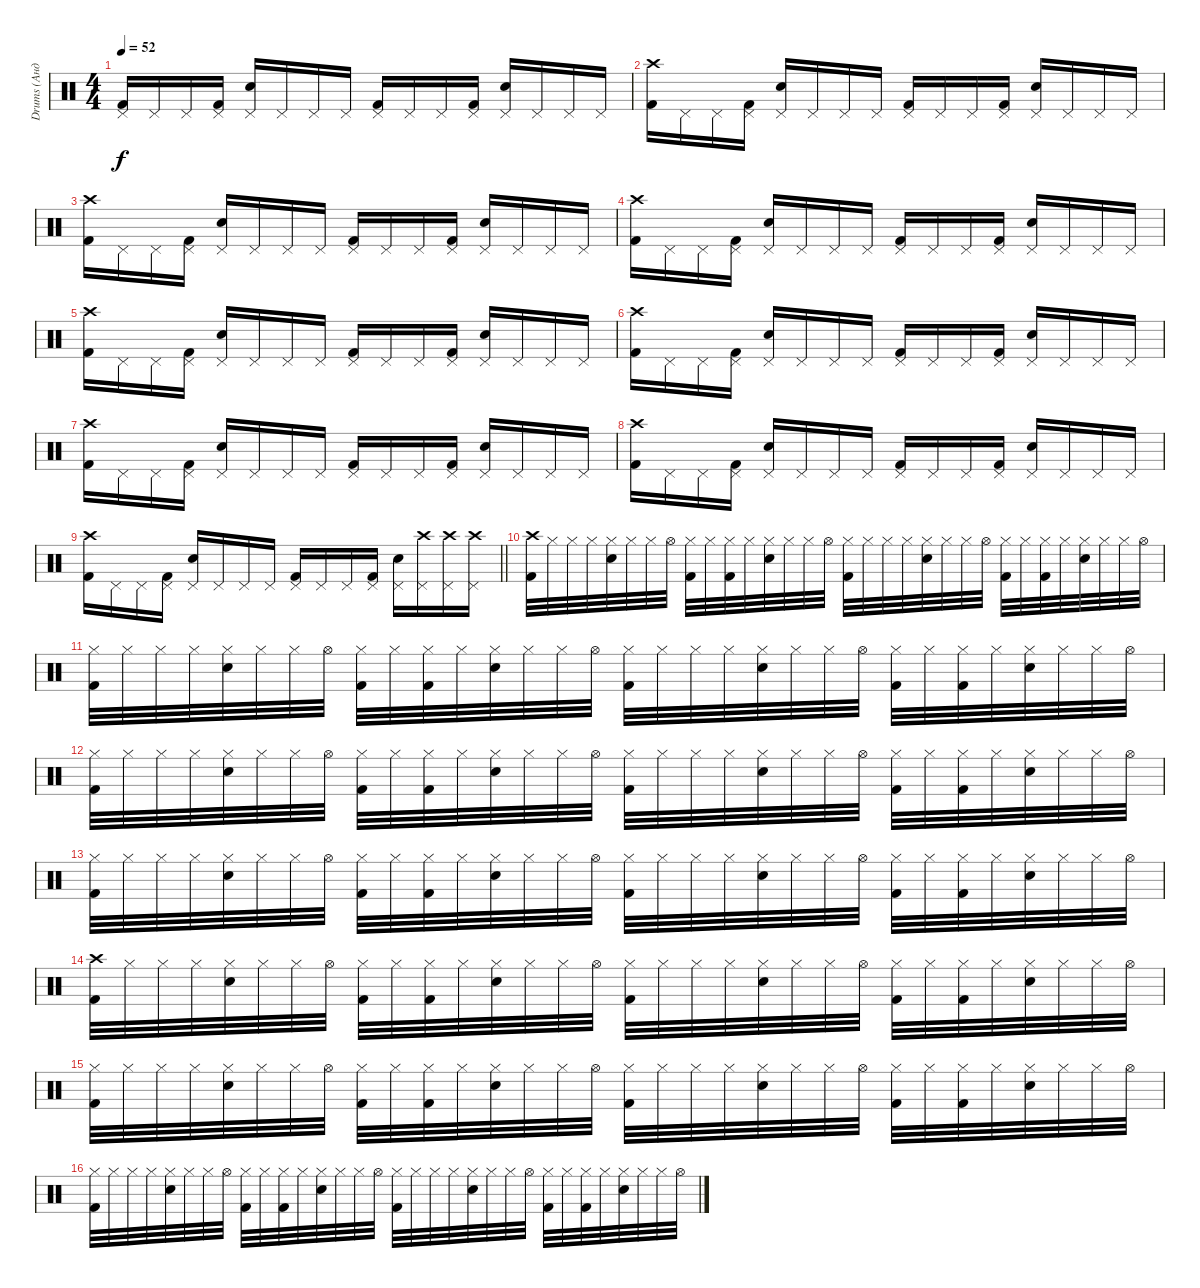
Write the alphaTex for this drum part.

\track ("Drums (Андрей)" "Drums (Анд") {instrument percussion}
\staff {score}
\articulation defaults
\ts (4 4)
\tempo 52
\clef neutral
\ks c
("Pedal Hi-Hat (hit)" "Kick (hit) 2").16{dy f} "Pedal Hi-Hat (hit)".16 "Pedal Hi-Hat (hit)".16 ("Pedal Hi-Hat (hit)" "Kick (hit) 2").16 ("Pedal Hi-Hat (hit)" "Snare (hit) 2").16 "Pedal Hi-Hat (hit)".16 "Pedal Hi-Hat (hit)".16 "Pedal Hi-Hat (hit)".16 ("Pedal Hi-Hat (hit)" "Kick (hit) 2").16 "Pedal Hi-Hat (hit)".16 "Pedal Hi-Hat (hit)".16 ("Pedal Hi-Hat (hit)" "Kick (hit) 2").16 ("Pedal Hi-Hat (hit)" "Snare (hit) 2").16 "Pedal Hi-Hat (hit)".16 "Pedal Hi-Hat (hit)".16 "Pedal Hi-Hat (hit)".16 |
("Crash high (hit)" "Kick (hit) 2").16 "Pedal Hi-Hat (hit)".16 "Pedal Hi-Hat (hit)".16 ("Pedal Hi-Hat (hit)" "Kick (hit) 2").16 ("Pedal Hi-Hat (hit)" "Snare (hit) 2").16 "Pedal Hi-Hat (hit)".16 "Pedal Hi-Hat (hit)".16 "Pedal Hi-Hat (hit)".16 ("Pedal Hi-Hat (hit)" "Kick (hit) 2").16 "Pedal Hi-Hat (hit)".16 "Pedal Hi-Hat (hit)".16 ("Pedal Hi-Hat (hit)" "Kick (hit) 2").16 ("Pedal Hi-Hat (hit)" "Snare (hit) 2").16 "Pedal Hi-Hat (hit)".16 "Pedal Hi-Hat (hit)".16 "Pedal Hi-Hat (hit)".16 |
("Crash high (hit)" "Kick (hit) 2").16 "Pedal Hi-Hat (hit)".16 "Pedal Hi-Hat (hit)".16 ("Pedal Hi-Hat (hit)" "Kick (hit) 2").16 ("Pedal Hi-Hat (hit)" "Snare (hit) 2").16 "Pedal Hi-Hat (hit)".16 "Pedal Hi-Hat (hit)".16 "Pedal Hi-Hat (hit)".16 ("Pedal Hi-Hat (hit)" "Kick (hit) 2").16 "Pedal Hi-Hat (hit)".16 "Pedal Hi-Hat (hit)".16 ("Pedal Hi-Hat (hit)" "Kick (hit) 2").16 ("Pedal Hi-Hat (hit)" "Snare (hit) 2").16 "Pedal Hi-Hat (hit)".16 "Pedal Hi-Hat (hit)".16 "Pedal Hi-Hat (hit)".16 |
("Crash high (hit)" "Kick (hit) 2").16 "Pedal Hi-Hat (hit)".16 "Pedal Hi-Hat (hit)".16 ("Pedal Hi-Hat (hit)" "Kick (hit) 2").16 ("Pedal Hi-Hat (hit)" "Snare (hit) 2").16 "Pedal Hi-Hat (hit)".16 "Pedal Hi-Hat (hit)".16 "Pedal Hi-Hat (hit)".16 ("Pedal Hi-Hat (hit)" "Kick (hit) 2").16 "Pedal Hi-Hat (hit)".16 "Pedal Hi-Hat (hit)".16 ("Pedal Hi-Hat (hit)" "Kick (hit) 2").16 ("Pedal Hi-Hat (hit)" "Snare (hit) 2").16 "Pedal Hi-Hat (hit)".16 "Pedal Hi-Hat (hit)".16 "Pedal Hi-Hat (hit)".16 |
("Crash high (hit)" "Kick (hit) 2").16 "Pedal Hi-Hat (hit)".16 "Pedal Hi-Hat (hit)".16 ("Pedal Hi-Hat (hit)" "Kick (hit) 2").16 ("Pedal Hi-Hat (hit)" "Snare (hit) 2").16 "Pedal Hi-Hat (hit)".16 "Pedal Hi-Hat (hit)".16 "Pedal Hi-Hat (hit)".16 ("Pedal Hi-Hat (hit)" "Kick (hit) 2").16 "Pedal Hi-Hat (hit)".16 "Pedal Hi-Hat (hit)".16 ("Pedal Hi-Hat (hit)" "Kick (hit) 2").16 ("Pedal Hi-Hat (hit)" "Snare (hit) 2").16 "Pedal Hi-Hat (hit)".16 "Pedal Hi-Hat (hit)".16 "Pedal Hi-Hat (hit)".16 |
("Crash high (hit)" "Kick (hit) 2").16 "Pedal Hi-Hat (hit)".16 "Pedal Hi-Hat (hit)".16 ("Pedal Hi-Hat (hit)" "Kick (hit) 2").16 ("Pedal Hi-Hat (hit)" "Snare (hit) 2").16 "Pedal Hi-Hat (hit)".16 "Pedal Hi-Hat (hit)".16 "Pedal Hi-Hat (hit)".16 ("Pedal Hi-Hat (hit)" "Kick (hit) 2").16 "Pedal Hi-Hat (hit)".16 "Pedal Hi-Hat (hit)".16 ("Pedal Hi-Hat (hit)" "Kick (hit) 2").16 ("Pedal Hi-Hat (hit)" "Snare (hit) 2").16 "Pedal Hi-Hat (hit)".16 "Pedal Hi-Hat (hit)".16 "Pedal Hi-Hat (hit)".16 |
("Crash high (hit)" "Kick (hit) 2").16 "Pedal Hi-Hat (hit)".16 "Pedal Hi-Hat (hit)".16 ("Pedal Hi-Hat (hit)" "Kick (hit) 2").16 ("Pedal Hi-Hat (hit)" "Snare (hit) 2").16 "Pedal Hi-Hat (hit)".16 "Pedal Hi-Hat (hit)".16 "Pedal Hi-Hat (hit)".16 ("Pedal Hi-Hat (hit)" "Kick (hit) 2").16 "Pedal Hi-Hat (hit)".16 "Pedal Hi-Hat (hit)".16 ("Pedal Hi-Hat (hit)" "Kick (hit) 2").16 ("Pedal Hi-Hat (hit)" "Snare (hit) 2").16 "Pedal Hi-Hat (hit)".16 "Pedal Hi-Hat (hit)".16 "Pedal Hi-Hat (hit)".16 |
("Crash high (hit)" "Kick (hit) 2").16 "Pedal Hi-Hat (hit)".16 "Pedal Hi-Hat (hit)".16 ("Pedal Hi-Hat (hit)" "Kick (hit) 2").16 ("Pedal Hi-Hat (hit)" "Snare (hit) 2").16 "Pedal Hi-Hat (hit)".16 "Pedal Hi-Hat (hit)".16 "Pedal Hi-Hat (hit)".16 ("Pedal Hi-Hat (hit)" "Kick (hit) 2").16 "Pedal Hi-Hat (hit)".16 "Pedal Hi-Hat (hit)".16 ("Pedal Hi-Hat (hit)" "Kick (hit) 2").16 ("Pedal Hi-Hat (hit)" "Snare (hit) 2").16 "Pedal Hi-Hat (hit)".16 "Pedal Hi-Hat (hit)".16 "Pedal Hi-Hat (hit)".16 |
\barLineRight lightlight
("Crash high (hit)" "Kick (hit) 2").16 "Pedal Hi-Hat (hit)".16 "Pedal Hi-Hat (hit)".16 ("Pedal Hi-Hat (hit)" "Kick (hit) 2").16 ("Pedal Hi-Hat (hit)" "Snare (hit) 2").16 "Pedal Hi-Hat (hit)".16 "Pedal Hi-Hat (hit)".16 "Pedal Hi-Hat (hit)".16 ("Pedal Hi-Hat (hit)" "Kick (hit) 2").16 "Pedal Hi-Hat (hit)".16 "Pedal Hi-Hat (hit)".16 ("Pedal Hi-Hat (hit)" "Kick (hit) 2").16 ("Pedal Hi-Hat (hit)" "Snare (hit) 2").16 ("Pedal Hi-Hat (hit)" "Crash high (hit)").16 ("Pedal Hi-Hat (hit)" "Crash high (hit)").16 ("Pedal Hi-Hat (hit)" "Crash high (hit)").16 |
("Crash high (hit)" "Kick (hit) 2").32 "Hi-Hat (closed)".32 "Hi-Hat (closed)".32 "Hi-Hat (closed)".32 ("Hi-Hat (closed)" "Snare (hit) 2").32 "Hi-Hat (closed)".32 "Hi-Hat (closed)".32 "Hi-Hat (open)".32 ("Hi-Hat (closed)" "Kick (hit) 2").32 "Hi-Hat (closed)".32 ("Hi-Hat (closed)" "Kick (hit) 2").32 "Hi-Hat (closed)".32 ("Hi-Hat (closed)" "Snare (hit) 2").32 "Hi-Hat (closed)".32 "Hi-Hat (closed)".32 "Hi-Hat (open)".32 ("Hi-Hat (closed)" "Kick (hit) 2").32 "Hi-Hat (closed)".32 "Hi-Hat (closed)".32 "Hi-Hat (closed)".32 ("Hi-Hat (closed)" "Snare (hit) 2").32 "Hi-Hat (closed)".32 "Hi-Hat (closed)".32 "Hi-Hat (open)".32 ("Hi-Hat (closed)" "Kick (hit) 2").32 "Hi-Hat (closed)".32 ("Hi-Hat (closed)" "Kick (hit) 2").32 "Hi-Hat (closed)".32 ("Hi-Hat (closed)" "Snare (hit) 2").32 "Hi-Hat (closed)".32 "Hi-Hat (closed)".32 "Hi-Hat (open)".32 |
("Hi-Hat (closed)" "Kick (hit) 2").32 "Hi-Hat (closed)".32 "Hi-Hat (closed)".32 "Hi-Hat (closed)".32 ("Hi-Hat (closed)" "Snare (hit) 2").32 "Hi-Hat (closed)".32 "Hi-Hat (closed)".32 "Hi-Hat (open)".32 ("Hi-Hat (closed)" "Kick (hit) 2").32 "Hi-Hat (closed)".32 ("Hi-Hat (closed)" "Kick (hit) 2").32 "Hi-Hat (closed)".32 ("Hi-Hat (closed)" "Snare (hit) 2").32 "Hi-Hat (closed)".32 "Hi-Hat (closed)".32 "Hi-Hat (open)".32 ("Hi-Hat (closed)" "Kick (hit) 2").32 "Hi-Hat (closed)".32 "Hi-Hat (closed)".32 "Hi-Hat (closed)".32 ("Hi-Hat (closed)" "Snare (hit) 2").32 "Hi-Hat (closed)".32 "Hi-Hat (closed)".32 "Hi-Hat (open)".32 ("Hi-Hat (closed)" "Kick (hit) 2").32 "Hi-Hat (closed)".32 ("Hi-Hat (closed)" "Kick (hit) 2").32 "Hi-Hat (closed)".32 ("Hi-Hat (closed)" "Snare (hit) 2").32 "Hi-Hat (closed)".32 "Hi-Hat (closed)".32 "Hi-Hat (open)".32 |
("Hi-Hat (closed)" "Kick (hit) 2").32 "Hi-Hat (closed)".32 "Hi-Hat (closed)".32 "Hi-Hat (closed)".32 ("Hi-Hat (closed)" "Snare (hit) 2").32 "Hi-Hat (closed)".32 "Hi-Hat (closed)".32 "Hi-Hat (open)".32 ("Hi-Hat (closed)" "Kick (hit) 2").32 "Hi-Hat (closed)".32 ("Hi-Hat (closed)" "Kick (hit) 2").32 "Hi-Hat (closed)".32 ("Hi-Hat (closed)" "Snare (hit) 2").32 "Hi-Hat (closed)".32 "Hi-Hat (closed)".32 "Hi-Hat (open)".32 ("Hi-Hat (closed)" "Kick (hit) 2").32 "Hi-Hat (closed)".32 "Hi-Hat (closed)".32 "Hi-Hat (closed)".32 ("Hi-Hat (closed)" "Snare (hit) 2").32 "Hi-Hat (closed)".32 "Hi-Hat (closed)".32 "Hi-Hat (open)".32 ("Hi-Hat (closed)" "Kick (hit) 2").32 "Hi-Hat (closed)".32 ("Hi-Hat (closed)" "Kick (hit) 2").32 "Hi-Hat (closed)".32 ("Hi-Hat (closed)" "Snare (hit) 2").32 "Hi-Hat (closed)".32 "Hi-Hat (closed)".32 "Hi-Hat (open)".32 |
("Hi-Hat (closed)" "Kick (hit) 2").32 "Hi-Hat (closed)".32 "Hi-Hat (closed)".32 "Hi-Hat (closed)".32 ("Hi-Hat (closed)" "Snare (hit) 2").32 "Hi-Hat (closed)".32 "Hi-Hat (closed)".32 "Hi-Hat (open)".32 ("Hi-Hat (closed)" "Kick (hit) 2").32 "Hi-Hat (closed)".32 ("Hi-Hat (closed)" "Kick (hit) 2").32 "Hi-Hat (closed)".32 ("Hi-Hat (closed)" "Snare (hit) 2").32 "Hi-Hat (closed)".32 "Hi-Hat (closed)".32 "Hi-Hat (open)".32 ("Hi-Hat (closed)" "Kick (hit) 2").32 "Hi-Hat (closed)".32 "Hi-Hat (closed)".32 "Hi-Hat (closed)".32 ("Hi-Hat (closed)" "Snare (hit) 2").32 "Hi-Hat (closed)".32 "Hi-Hat (closed)".32 "Hi-Hat (open)".32 ("Hi-Hat (closed)" "Kick (hit) 2").32 "Hi-Hat (closed)".32 ("Hi-Hat (closed)" "Kick (hit) 2").32 "Hi-Hat (closed)".32 ("Hi-Hat (closed)" "Snare (hit) 2").32 "Hi-Hat (closed)".32 "Hi-Hat (closed)".32 "Hi-Hat (open)".32 |
("Crash high (hit)" "Kick (hit) 2").32 "Hi-Hat (closed)".32 "Hi-Hat (closed)".32 "Hi-Hat (closed)".32 ("Hi-Hat (closed)" "Snare (hit) 2").32 "Hi-Hat (closed)".32 "Hi-Hat (closed)".32 "Hi-Hat (open)".32 ("Hi-Hat (closed)" "Kick (hit) 2").32 "Hi-Hat (closed)".32 ("Hi-Hat (closed)" "Kick (hit) 2").32 "Hi-Hat (closed)".32 ("Hi-Hat (closed)" "Snare (hit) 2").32 "Hi-Hat (closed)".32 "Hi-Hat (closed)".32 "Hi-Hat (open)".32 ("Hi-Hat (closed)" "Kick (hit) 2").32 "Hi-Hat (closed)".32 "Hi-Hat (closed)".32 "Hi-Hat (closed)".32 ("Hi-Hat (closed)" "Snare (hit) 2").32 "Hi-Hat (closed)".32 "Hi-Hat (closed)".32 "Hi-Hat (open)".32 ("Hi-Hat (closed)" "Kick (hit) 2").32 "Hi-Hat (closed)".32 ("Hi-Hat (closed)" "Kick (hit) 2").32 "Hi-Hat (closed)".32 ("Hi-Hat (closed)" "Snare (hit) 2").32 "Hi-Hat (closed)".32 "Hi-Hat (closed)".32 "Hi-Hat (open)".32 |
("Hi-Hat (closed)" "Kick (hit) 2").32 "Hi-Hat (closed)".32 "Hi-Hat (closed)".32 "Hi-Hat (closed)".32 ("Hi-Hat (closed)" "Snare (hit) 2").32 "Hi-Hat (closed)".32 "Hi-Hat (closed)".32 "Hi-Hat (open)".32 ("Hi-Hat (closed)" "Kick (hit) 2").32 "Hi-Hat (closed)".32 ("Hi-Hat (closed)" "Kick (hit) 2").32 "Hi-Hat (closed)".32 ("Hi-Hat (closed)" "Snare (hit) 2").32 "Hi-Hat (closed)".32 "Hi-Hat (closed)".32 "Hi-Hat (open)".32 ("Hi-Hat (closed)" "Kick (hit) 2").32 "Hi-Hat (closed)".32 "Hi-Hat (closed)".32 "Hi-Hat (closed)".32 ("Hi-Hat (closed)" "Snare (hit) 2").32 "Hi-Hat (closed)".32 "Hi-Hat (closed)".32 "Hi-Hat (open)".32 ("Hi-Hat (closed)" "Kick (hit) 2").32 "Hi-Hat (closed)".32 ("Hi-Hat (closed)" "Kick (hit) 2").32 "Hi-Hat (closed)".32 ("Hi-Hat (closed)" "Snare (hit) 2").32 "Hi-Hat (closed)".32 "Hi-Hat (closed)".32 "Hi-Hat (open)".32 |
("Hi-Hat (closed)" "Kick (hit) 2").32 "Hi-Hat (closed)".32 "Hi-Hat (closed)".32 "Hi-Hat (closed)".32 ("Hi-Hat (closed)" "Snare (hit) 2").32 "Hi-Hat (closed)".32 "Hi-Hat (closed)".32 "Hi-Hat (open)".32 ("Hi-Hat (closed)" "Kick (hit) 2").32 "Hi-Hat (closed)".32 ("Hi-Hat (closed)" "Kick (hit) 2").32 "Hi-Hat (closed)".32 ("Hi-Hat (closed)" "Snare (hit) 2").32 "Hi-Hat (closed)".32 "Hi-Hat (closed)".32 "Hi-Hat (open)".32 ("Hi-Hat (closed)" "Kick (hit) 2").32 "Hi-Hat (closed)".32 "Hi-Hat (closed)".32 "Hi-Hat (closed)".32 ("Hi-Hat (closed)" "Snare (hit) 2").32 "Hi-Hat (closed)".32 "Hi-Hat (closed)".32 "Hi-Hat (open)".32 ("Hi-Hat (closed)" "Kick (hit) 2").32 "Hi-Hat (closed)".32 ("Hi-Hat (closed)" "Kick (hit) 2").32 "Hi-Hat (closed)".32 ("Hi-Hat (closed)" "Snare (hit) 2").32 "Hi-Hat (closed)".32 "Hi-Hat (closed)".32 "Hi-Hat (open)".32
